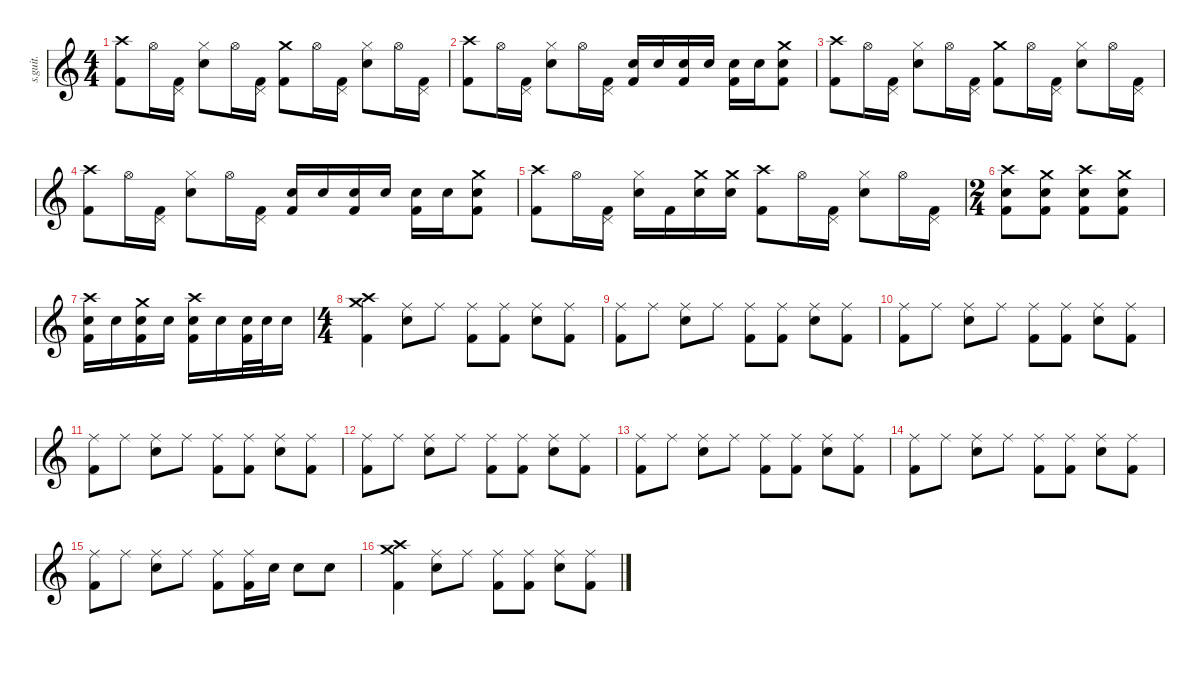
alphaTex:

\defaultSystemsLayout 4
\hideDynamics
\bracketExtendMode nobrackets
\track ("Bob Burns (Drums)" "s.guit.") {instrument percussion}
\staff {score}
\articulation defaults
\ts (4 4)
\tempo (60 hide)
\clef g2
\ks c
("Crash high (hit)" "Kick (hit) 2").8{lyrics (0 "") lyrics (1 "") lyrics (2 "") lyrics (3 "") lyrics (4 "") dy f} "Hi-Hat (open)".16{lyrics (0 "") lyrics (1 "") lyrics (2 "") lyrics (3 "") lyrics (4 "")} ("Pedal Hi-Hat (hit)" "Kick (hit) 2").16{lyrics (0 "") lyrics (1 "") lyrics (2 "") lyrics (3 "") lyrics (4 "")} ("Hi-Hat (closed)" "Electric Snare (hit)").8{lyrics (0 "") lyrics (1 "") lyrics (2 "") lyrics (3 "") lyrics (4 "")} "Hi-Hat (open)".16{lyrics (0 "") lyrics (1 "") lyrics (2 "") lyrics (3 "") lyrics (4 "")} ("Pedal Hi-Hat (hit)" "Kick (hit) 2").16{lyrics (0 "") lyrics (1 "") lyrics (2 "") lyrics (3 "") lyrics (4 "")} ("Crash medium (hit)" "Kick (hit) 2").8{lyrics (0 "") lyrics (1 "") lyrics (2 "") lyrics (3 "") lyrics (4 "")} "Hi-Hat (open)".16{lyrics (0 "") lyrics (1 "") lyrics (2 "") lyrics (3 "") lyrics (4 "")} ("Pedal Hi-Hat (hit)" "Kick (hit) 2").16{lyrics (0 "") lyrics (1 "") lyrics (2 "") lyrics (3 "") lyrics (4 "")} ("Hi-Hat (closed)" "Electric Snare (hit)").8{lyrics (0 "") lyrics (1 "") lyrics (2 "") lyrics (3 "") lyrics (4 "")} "Hi-Hat (open)".16{lyrics (0 "") lyrics (1 "") lyrics (2 "") lyrics (3 "") lyrics (4 "")} ("Pedal Hi-Hat (hit)" "Kick (hit) 2").16{lyrics (0 "") lyrics (1 "") lyrics (2 "") lyrics (3 "") lyrics (4 "")} |
("Crash high (hit)" "Kick (hit) 2").8{lyrics (0 "") lyrics (1 "") lyrics (2 "") lyrics (3 "") lyrics (4 "")} "Hi-Hat (open)".16{lyrics (0 "") lyrics (1 "") lyrics (2 "") lyrics (3 "") lyrics (4 "")} ("Pedal Hi-Hat (hit)" "Kick (hit) 2").16{lyrics (0 "") lyrics (1 "") lyrics (2 "") lyrics (3 "") lyrics (4 "")} ("Hi-Hat (closed)" "Electric Snare (hit)").8{lyrics (0 "") lyrics (1 "") lyrics (2 "") lyrics (3 "") lyrics (4 "")} "Hi-Hat (open)".16{lyrics (0 "") lyrics (1 "") lyrics (2 "") lyrics (3 "") lyrics (4 "")} ("Pedal Hi-Hat (hit)" "Kick (hit) 2").16{lyrics (0 "") lyrics (1 "") lyrics (2 "") lyrics (3 "") lyrics (4 "")} ("Electric Snare (hit)" "Kick (hit) 2").16{lyrics (0 "") lyrics (1 "") lyrics (2 "") lyrics (3 "") lyrics (4 "")} "Electric Snare (hit)".16{lyrics (0 "") lyrics (1 "") lyrics (2 "") lyrics (3 "") lyrics (4 "")} ("Electric Snare (hit)" "Kick (hit) 2").16{lyrics (0 "") lyrics (1 "") lyrics (2 "") lyrics (3 "") lyrics (4 "")} "Electric Snare (hit)".16{lyrics (0 "") lyrics (1 "") lyrics (2 "") lyrics (3 "") lyrics (4 "")} ("Electric Snare (hit)" "Kick (hit) 2").16{lyrics (0 "") lyrics (1 "") lyrics (2 "") lyrics (3 "") lyrics (4 "")} "Electric Snare (hit)".16{lyrics (0 "") lyrics (1 "") lyrics (2 "") lyrics (3 "") lyrics (4 "")} ("Crash medium (hit)" "Electric Snare (hit)" "Kick (hit) 2").8{lyrics (0 "") lyrics (1 "") lyrics (2 "") lyrics (3 "") lyrics (4 "")} |
("Crash high (hit)" "Kick (hit) 2").8{lyrics (0 "") lyrics (1 "") lyrics (2 "") lyrics (3 "") lyrics (4 "")} "Hi-Hat (open)".16{lyrics (0 "") lyrics (1 "") lyrics (2 "") lyrics (3 "") lyrics (4 "")} ("Pedal Hi-Hat (hit)" "Kick (hit) 2").16{lyrics (0 "") lyrics (1 "") lyrics (2 "") lyrics (3 "") lyrics (4 "")} ("Hi-Hat (closed)" "Electric Snare (hit)").8{lyrics (0 "") lyrics (1 "") lyrics (2 "") lyrics (3 "") lyrics (4 "")} "Hi-Hat (open)".16{lyrics (0 "") lyrics (1 "") lyrics (2 "") lyrics (3 "") lyrics (4 "")} ("Pedal Hi-Hat (hit)" "Kick (hit) 2").16{lyrics (0 "") lyrics (1 "") lyrics (2 "") lyrics (3 "") lyrics (4 "")} ("Crash medium (hit)" "Kick (hit) 2").8{lyrics (0 "") lyrics (1 "") lyrics (2 "") lyrics (3 "") lyrics (4 "")} "Hi-Hat (open)".16{lyrics (0 "") lyrics (1 "") lyrics (2 "") lyrics (3 "") lyrics (4 "")} ("Pedal Hi-Hat (hit)" "Kick (hit) 2").16{lyrics (0 "") lyrics (1 "") lyrics (2 "") lyrics (3 "") lyrics (4 "")} ("Hi-Hat (closed)" "Electric Snare (hit)").8{lyrics (0 "") lyrics (1 "") lyrics (2 "") lyrics (3 "") lyrics (4 "")} "Hi-Hat (open)".16{lyrics (0 "") lyrics (1 "") lyrics (2 "") lyrics (3 "") lyrics (4 "")} ("Pedal Hi-Hat (hit)" "Kick (hit) 2").16{lyrics (0 "") lyrics (1 "") lyrics (2 "") lyrics (3 "") lyrics (4 "")} |
("Crash high (hit)" "Kick (hit) 2").8{lyrics (0 "") lyrics (1 "") lyrics (2 "") lyrics (3 "") lyrics (4 "")} "Hi-Hat (open)".16{lyrics (0 "") lyrics (1 "") lyrics (2 "") lyrics (3 "") lyrics (4 "")} ("Pedal Hi-Hat (hit)" "Kick (hit) 2").16{lyrics (0 "") lyrics (1 "") lyrics (2 "") lyrics (3 "") lyrics (4 "")} ("Hi-Hat (closed)" "Electric Snare (hit)").8{lyrics (0 "") lyrics (1 "") lyrics (2 "") lyrics (3 "") lyrics (4 "")} "Hi-Hat (open)".16{lyrics (0 "") lyrics (1 "") lyrics (2 "") lyrics (3 "") lyrics (4 "")} ("Pedal Hi-Hat (hit)" "Kick (hit) 2").16{lyrics (0 "") lyrics (1 "") lyrics (2 "") lyrics (3 "") lyrics (4 "")} ("Electric Snare (hit)" "Kick (hit) 2").16{lyrics (0 "") lyrics (1 "") lyrics (2 "") lyrics (3 "") lyrics (4 "")} "Electric Snare (hit)".16{lyrics (0 "") lyrics (1 "") lyrics (2 "") lyrics (3 "") lyrics (4 "")} ("Electric Snare (hit)" "Kick (hit) 2").16{lyrics (0 "") lyrics (1 "") lyrics (2 "") lyrics (3 "") lyrics (4 "")} "Electric Snare (hit)".16{lyrics (0 "") lyrics (1 "") lyrics (2 "") lyrics (3 "") lyrics (4 "")} ("Electric Snare (hit)" "Kick (hit) 2").16{lyrics (0 "") lyrics (1 "") lyrics (2 "") lyrics (3 "") lyrics (4 "")} "Electric Snare (hit)".16{lyrics (0 "") lyrics (1 "") lyrics (2 "") lyrics (3 "") lyrics (4 "")} ("Crash medium (hit)" "Electric Snare (hit)" "Kick (hit) 2").8{lyrics (0 "") lyrics (1 "") lyrics (2 "") lyrics (3 "") lyrics (4 "")} |
("Crash high (hit)" "Kick (hit) 2").8{lyrics (0 "") lyrics (1 "") lyrics (2 "") lyrics (3 "") lyrics (4 "")} "Hi-Hat (open)".16{lyrics (0 "") lyrics (1 "") lyrics (2 "") lyrics (3 "") lyrics (4 "")} ("Pedal Hi-Hat (hit)" "Kick (hit) 2").16{lyrics (0 "") lyrics (1 "") lyrics (2 "") lyrics (3 "") lyrics (4 "")} ("Hi-Hat (closed)" "Electric Snare (hit)").16{lyrics (0 "") lyrics (1 "") lyrics (2 "") lyrics (3 "") lyrics (4 "")} "Kick (hit) 2".16{lyrics (0 "") lyrics (1 "") lyrics (2 "") lyrics (3 "") lyrics (4 "")} ("Crash medium (hit)" "Electric Snare (hit)").16{lyrics (0 "") lyrics (1 "") lyrics (2 "") lyrics (3 "") lyrics (4 "")} ("Crash medium (hit)" "Electric Snare (hit)").16{lyrics (0 "") lyrics (1 "") lyrics (2 "") lyrics (3 "") lyrics (4 "")} ("Crash high (hit)" "Kick (hit) 2").8{lyrics (0 "") lyrics (1 "") lyrics (2 "") lyrics (3 "") lyrics (4 "")} "Hi-Hat (open)".16{lyrics (0 "") lyrics (1 "") lyrics (2 "") lyrics (3 "") lyrics (4 "")} ("Pedal Hi-Hat (hit)" "Kick (hit) 2").16{lyrics (0 "") lyrics (1 "") lyrics (2 "") lyrics (3 "") lyrics (4 "")} ("Hi-Hat (closed)" "Electric Snare (hit)").8{lyrics (0 "") lyrics (1 "") lyrics (2 "") lyrics (3 "") lyrics (4 "")} "Hi-Hat (open)".16{lyrics (0 "") lyrics (1 "") lyrics (2 "") lyrics (3 "") lyrics (4 "")} ("Pedal Hi-Hat (hit)" "Kick (hit) 2").16{lyrics (0 "") lyrics (1 "") lyrics (2 "") lyrics (3 "") lyrics (4 "")} |
\ts (2 4)
\beaming (8 2 2 2 2)
\tempo (75 hide)
("Crash high (hit)" "Electric Snare (hit)" "Kick (hit) 2").8{lyrics (0 "") lyrics (1 "") lyrics (2 "") lyrics (3 "") lyrics (4 "")} ("Crash medium (hit)" "Electric Snare (hit)" "Kick (hit) 2").8{lyrics (0 "") lyrics (1 "") lyrics (2 "") lyrics (3 "") lyrics (4 "")} ("Crash high (hit)" "Electric Snare (hit)" "Kick (hit) 2").8{lyrics (0 "") lyrics (1 "") lyrics (2 "") lyrics (3 "") lyrics (4 "")} ("Crash medium (hit)" "Electric Snare (hit)" "Kick (hit) 2").8{lyrics (0 "") lyrics (1 "") lyrics (2 "") lyrics (3 "") lyrics (4 "")} |
\tempo (80 hide)
("Crash high (hit)" "Electric Snare (hit)" "Kick (hit) 2").16{lyrics (0 "") lyrics (1 "") lyrics (2 "") lyrics (3 "") lyrics (4 "")} "Electric Snare (hit)".16{lyrics (0 "") lyrics (1 "") lyrics (2 "") lyrics (3 "") lyrics (4 "")} ("Crash medium (hit)" "Electric Snare (hit)" "Kick (hit) 2").16{lyrics (0 "") lyrics (1 "") lyrics (2 "") lyrics (3 "") lyrics (4 "")} "Electric Snare (hit)".16{lyrics (0 "") lyrics (1 "") lyrics (2 "") lyrics (3 "") lyrics (4 "")} ("Crash high (hit)" "Electric Snare (hit)" "Kick (hit) 2").16{lyrics (0 "") lyrics (1 "") lyrics (2 "") lyrics (3 "") lyrics (4 "")} "Electric Snare (hit)".16{lyrics (0 "") lyrics (1 "") lyrics (2 "") lyrics (3 "") lyrics (4 "")} ("Electric Snare (hit)" "Kick (hit) 2").32{lyrics (0 "") lyrics (1 "") lyrics (2 "") lyrics (3 "") lyrics (4 "")} "Electric Snare (hit)".32{lyrics (0 "") lyrics (1 "") lyrics (2 "") lyrics (3 "") lyrics (4 "")} "Electric Snare (hit)".16{lyrics (0 "") lyrics (1 "") lyrics (2 "") lyrics (3 "") lyrics (4 "")} |
\ts (4 4)
\beaming (8 2 2 2 2)
\tempo (150 hide)
("Crash high (hit)" "Crash medium (hit)" "Kick (hit) 2").4{lyrics (0 "") lyrics (1 "") lyrics (2 "") lyrics (3 "") lyrics (4 "")} ("Ride (middle)" "Electric Snare (hit)").8{lyrics (0 "") lyrics (1 "") lyrics (2 "") lyrics (3 "") lyrics (4 "")} "Ride (middle)".8{lyrics (0 "") lyrics (1 "") lyrics (2 "") lyrics (3 "") lyrics (4 "")} ("Ride (middle)" "Kick (hit) 2").8{lyrics (0 "") lyrics (1 "") lyrics (2 "") lyrics (3 "") lyrics (4 "")} ("Ride (middle)" "Kick (hit) 2").8{lyrics (0 "") lyrics (1 "") lyrics (2 "") lyrics (3 "") lyrics (4 "")} ("Ride (middle)" "Electric Snare (hit)").8{lyrics (0 "") lyrics (1 "") lyrics (2 "") lyrics (3 "") lyrics (4 "")} ("Ride (middle)" "Kick (hit) 2").8{lyrics (0 "") lyrics (1 "") lyrics (2 "") lyrics (3 "") lyrics (4 "")} |
("Ride (middle)" "Kick (hit) 2").8{lyrics (0 "") lyrics (1 "") lyrics (2 "") lyrics (3 "") lyrics (4 "")} "Ride (middle)".8{lyrics (0 "") lyrics (1 "") lyrics (2 "") lyrics (3 "") lyrics (4 "")} ("Ride (middle)" "Electric Snare (hit)").8{lyrics (0 "") lyrics (1 "") lyrics (2 "") lyrics (3 "") lyrics (4 "")} "Ride (middle)".8{lyrics (0 "") lyrics (1 "") lyrics (2 "") lyrics (3 "") lyrics (4 "")} ("Ride (middle)" "Kick (hit) 2").8{lyrics (0 "") lyrics (1 "") lyrics (2 "") lyrics (3 "") lyrics (4 "")} ("Ride (middle)" "Kick (hit) 2").8{lyrics (0 "") lyrics (1 "") lyrics (2 "") lyrics (3 "") lyrics (4 "")} ("Ride (middle)" "Electric Snare (hit)").8{lyrics (0 "") lyrics (1 "") lyrics (2 "") lyrics (3 "") lyrics (4 "")} ("Ride (middle)" "Kick (hit) 2").8{lyrics (0 "") lyrics (1 "") lyrics (2 "") lyrics (3 "") lyrics (4 "")} |
("Ride (middle)" "Kick (hit) 2").8{lyrics (0 "") lyrics (1 "") lyrics (2 "") lyrics (3 "") lyrics (4 "")} "Ride (middle)".8{lyrics (0 "") lyrics (1 "") lyrics (2 "") lyrics (3 "") lyrics (4 "")} ("Ride (middle)" "Electric Snare (hit)").8{lyrics (0 "") lyrics (1 "") lyrics (2 "") lyrics (3 "") lyrics (4 "")} "Ride (middle)".8{lyrics (0 "") lyrics (1 "") lyrics (2 "") lyrics (3 "") lyrics (4 "")} ("Ride (middle)" "Kick (hit) 2").8{lyrics (0 "") lyrics (1 "") lyrics (2 "") lyrics (3 "") lyrics (4 "")} ("Ride (middle)" "Kick (hit) 2").8{lyrics (0 "") lyrics (1 "") lyrics (2 "") lyrics (3 "") lyrics (4 "")} ("Ride (middle)" "Electric Snare (hit)").8{lyrics (0 "") lyrics (1 "") lyrics (2 "") lyrics (3 "") lyrics (4 "")} ("Ride (middle)" "Kick (hit) 2").8{lyrics (0 "") lyrics (1 "") lyrics (2 "") lyrics (3 "") lyrics (4 "")} |
("Ride (middle)" "Kick (hit) 2").8{lyrics (0 "") lyrics (1 "") lyrics (2 "") lyrics (3 "") lyrics (4 "")} "Ride (middle)".8{lyrics (0 "") lyrics (1 "") lyrics (2 "") lyrics (3 "") lyrics (4 "")} ("Ride (middle)" "Electric Snare (hit)").8{lyrics (0 "") lyrics (1 "") lyrics (2 "") lyrics (3 "") lyrics (4 "")} "Ride (middle)".8{lyrics (0 "") lyrics (1 "") lyrics (2 "") lyrics (3 "") lyrics (4 "")} ("Ride (middle)" "Kick (hit) 2").8{lyrics (0 "") lyrics (1 "") lyrics (2 "") lyrics (3 "") lyrics (4 "")} ("Ride (middle)" "Kick (hit) 2").8{lyrics (0 "") lyrics (1 "") lyrics (2 "") lyrics (3 "") lyrics (4 "")} ("Ride (middle)" "Electric Snare (hit)").8{lyrics (0 "") lyrics (1 "") lyrics (2 "") lyrics (3 "") lyrics (4 "")} ("Ride (middle)" "Kick (hit) 2").8{lyrics (0 "") lyrics (1 "") lyrics (2 "") lyrics (3 "") lyrics (4 "")} |
("Ride (middle)" "Kick (hit) 2").8{lyrics (0 "") lyrics (1 "") lyrics (2 "") lyrics (3 "") lyrics (4 "")} "Ride (middle)".8{lyrics (0 "") lyrics (1 "") lyrics (2 "") lyrics (3 "") lyrics (4 "")} ("Ride (middle)" "Electric Snare (hit)").8{lyrics (0 "") lyrics (1 "") lyrics (2 "") lyrics (3 "") lyrics (4 "")} "Ride (middle)".8{lyrics (0 "") lyrics (1 "") lyrics (2 "") lyrics (3 "") lyrics (4 "")} ("Ride (middle)" "Kick (hit) 2").8{lyrics (0 "") lyrics (1 "") lyrics (2 "") lyrics (3 "") lyrics (4 "")} ("Ride (middle)" "Kick (hit) 2").8{lyrics (0 "") lyrics (1 "") lyrics (2 "") lyrics (3 "") lyrics (4 "")} ("Ride (middle)" "Electric Snare (hit)").8{lyrics (0 "") lyrics (1 "") lyrics (2 "") lyrics (3 "") lyrics (4 "")} ("Ride (middle)" "Kick (hit) 2").8{lyrics (0 "") lyrics (1 "") lyrics (2 "") lyrics (3 "") lyrics (4 "")} |
("Ride (middle)" "Kick (hit) 2").8{lyrics (0 "") lyrics (1 "") lyrics (2 "") lyrics (3 "") lyrics (4 "")} "Ride (middle)".8{lyrics (0 "") lyrics (1 "") lyrics (2 "") lyrics (3 "") lyrics (4 "")} ("Ride (middle)" "Electric Snare (hit)").8{lyrics (0 "") lyrics (1 "") lyrics (2 "") lyrics (3 "") lyrics (4 "")} "Ride (middle)".8{lyrics (0 "") lyrics (1 "") lyrics (2 "") lyrics (3 "") lyrics (4 "")} ("Ride (middle)" "Kick (hit) 2").8{lyrics (0 "") lyrics (1 "") lyrics (2 "") lyrics (3 "") lyrics (4 "")} ("Ride (middle)" "Kick (hit) 2").8{lyrics (0 "") lyrics (1 "") lyrics (2 "") lyrics (3 "") lyrics (4 "")} ("Ride (middle)" "Electric Snare (hit)").8{lyrics (0 "") lyrics (1 "") lyrics (2 "") lyrics (3 "") lyrics (4 "")} ("Ride (middle)" "Kick (hit) 2").8{lyrics (0 "") lyrics (1 "") lyrics (2 "") lyrics (3 "") lyrics (4 "")} |
("Ride (middle)" "Kick (hit) 2").8{lyrics (0 "") lyrics (1 "") lyrics (2 "") lyrics (3 "") lyrics (4 "")} "Ride (middle)".8{lyrics (0 "") lyrics (1 "") lyrics (2 "") lyrics (3 "") lyrics (4 "")} ("Ride (middle)" "Electric Snare (hit)").8{lyrics (0 "") lyrics (1 "") lyrics (2 "") lyrics (3 "") lyrics (4 "")} "Ride (middle)".8{lyrics (0 "") lyrics (1 "") lyrics (2 "") lyrics (3 "") lyrics (4 "")} ("Ride (middle)" "Kick (hit) 2").8{lyrics (0 "") lyrics (1 "") lyrics (2 "") lyrics (3 "") lyrics (4 "")} ("Ride (middle)" "Kick (hit) 2").8{lyrics (0 "") lyrics (1 "") lyrics (2 "") lyrics (3 "") lyrics (4 "")} ("Ride (middle)" "Electric Snare (hit)").8{lyrics (0 "") lyrics (1 "") lyrics (2 "") lyrics (3 "") lyrics (4 "")} ("Ride (middle)" "Kick (hit) 2").8{lyrics (0 "") lyrics (1 "") lyrics (2 "") lyrics (3 "") lyrics (4 "")} |
("Ride (middle)" "Kick (hit) 2").8{lyrics (0 "") lyrics (1 "") lyrics (2 "") lyrics (3 "") lyrics (4 "")} "Ride (middle)".8{lyrics (0 "") lyrics (1 "") lyrics (2 "") lyrics (3 "") lyrics (4 "")} ("Ride (middle)" "Electric Snare (hit)").8{lyrics (0 "") lyrics (1 "") lyrics (2 "") lyrics (3 "") lyrics (4 "")} "Ride (middle)".8{lyrics (0 "") lyrics (1 "") lyrics (2 "") lyrics (3 "") lyrics (4 "")} ("Ride (middle)" "Kick (hit) 2").8{lyrics (0 "") lyrics (1 "") lyrics (2 "") lyrics (3 "") lyrics (4 "")} ("Ride (middle)" "Kick (hit) 2").16{lyrics (0 "") lyrics (1 "") lyrics (2 "") lyrics (3 "") lyrics (4 "")} "Electric Snare (hit)".16{lyrics (0 "") lyrics (1 "") lyrics (2 "") lyrics (3 "") lyrics (4 "")} "Electric Snare (hit)".8{lyrics (0 "") lyrics (1 "") lyrics (2 "") lyrics (3 "") lyrics (4 "")} "Electric Snare (hit)".8{lyrics (0 "") lyrics (1 "") lyrics (2 "") lyrics (3 "") lyrics (4 "")} |
("Crash high (hit)" "Crash medium (hit)" "Kick (hit) 2").4{lyrics (0 "") lyrics (1 "") lyrics (2 "") lyrics (3 "") lyrics (4 "")} ("Ride (middle)" "Electric Snare (hit)").8{lyrics (0 "") lyrics (1 "") lyrics (2 "") lyrics (3 "") lyrics (4 "")} "Ride (middle)".8{lyrics (0 "") lyrics (1 "") lyrics (2 "") lyrics (3 "") lyrics (4 "")} ("Ride (middle)" "Kick (hit) 2").8{lyrics (0 "") lyrics (1 "") lyrics (2 "") lyrics (3 "") lyrics (4 "")} ("Ride (middle)" "Kick (hit) 2").8{lyrics (0 "") lyrics (1 "") lyrics (2 "") lyrics (3 "") lyrics (4 "")} ("Ride (middle)" "Electric Snare (hit)").8{lyrics (0 "") lyrics (1 "") lyrics (2 "") lyrics (3 "") lyrics (4 "")} ("Ride (middle)" "Kick (hit) 2").8{lyrics (0 "") lyrics (1 "") lyrics (2 "") lyrics (3 "") lyrics (4 "")}
